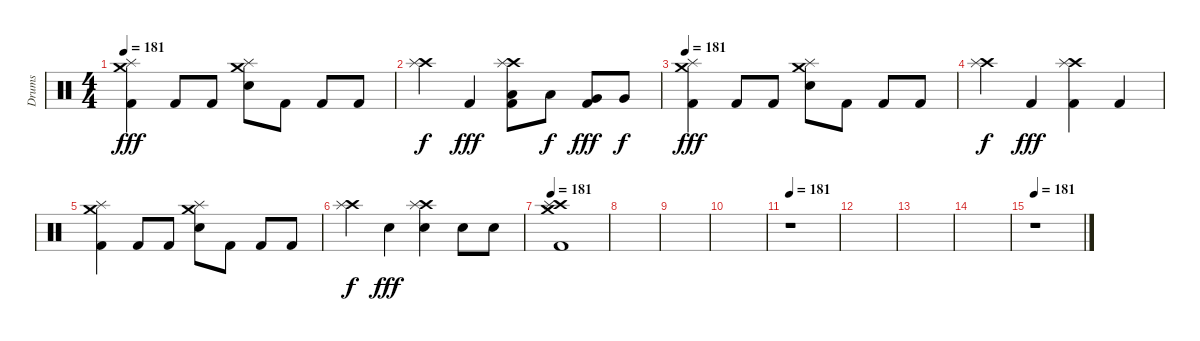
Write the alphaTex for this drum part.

\track ("Drums" "Drums") {instrument percussion}
\staff {score}
\articulation defaults
\ts (4 4)
\tempo 181
\clef neutral
\ks c
("Crash medium (hit)" "Splash (hit)" "Kick (hit) 2").4{dy fff} "Kick (hit) 2".8 "Kick (hit) 2".8 ("Crash medium (hit)" "Splash (hit)" "Snare (hit) 2").8 "Kick (hit) 2".8 "Kick (hit) 2".8 "Kick (hit) 2".8 |
("Crash high (hit)" "Splash (hit)").4{dy f} "Kick (hit) 2".4{dy fff} ("Crash high (hit)" "Splash (hit)" "Low Tom (hit)" "Kick (hit) 2").8 "Low Tom (hit)".8{dy f} ("Very Low Tom (hit)" "Kick (hit) 2").8{dy fff} "Very Low Tom (hit)".8{dy f} |
\tempo 181
("Crash medium (hit)" "Splash (hit)" "Kick (hit) 2").4{dy fff} "Kick (hit) 2".8 "Kick (hit) 2".8 ("Crash medium (hit)" "Splash (hit)" "Snare (hit) 2").8 "Kick (hit) 2".8 "Kick (hit) 2".8 "Kick (hit) 2".8 |
("Crash high (hit)" "Splash (hit)").4{dy f} "Kick (hit) 2".4{dy fff} ("Crash high (hit)" "Splash (hit)" "Kick (hit) 2").4 "Kick (hit) 2".4 |
("Crash medium (hit)" "Splash (hit)" "Kick (hit) 2").4 "Kick (hit) 2".8 "Kick (hit) 2".8 ("Crash medium (hit)" "Splash (hit)" "Snare (hit) 2").8 "Kick (hit) 2".8 "Kick (hit) 2".8 "Kick (hit) 2".8 |
("Crash high (hit)" "Splash (hit)").4{dy f} "Snare (hit) 2".4{dy fff} ("Crash high (hit)" "Splash (hit)" "Snare (hit) 2").4 "Snare (hit) 2".8 "Snare (hit) 2".8 |
\tempo 181
("Crash high (hit)" "Crash medium (hit)" "Splash (hit)" "Kick (hit) 2").1 |
|
|
|
\tempo 181
r.1 |
|
|
|
\tempo 181
r.1
